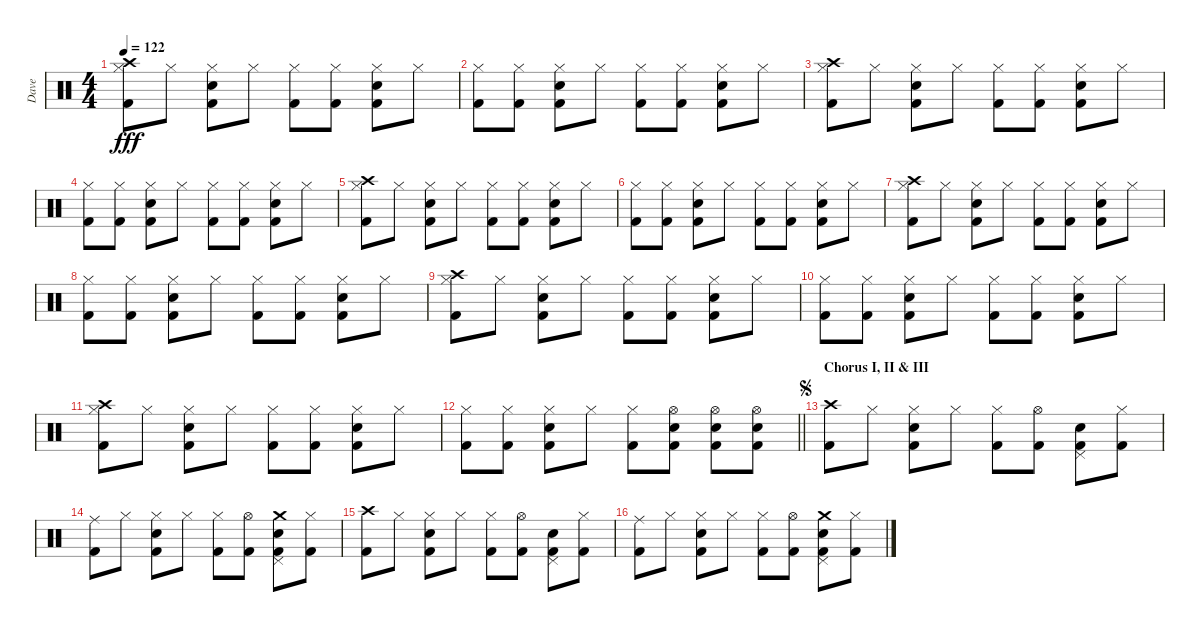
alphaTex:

\track ("Dave" "Dave") {instrument percussion}
\staff {score}
\articulation defaults
\ts (4 4)
\tempo 122
\clef neutral
\ks c
("Crash high (hit)" "Hi-Hat (closed)" "Kick (hit) 2").8{dy fff} "Hi-Hat (closed)".8 ("Hi-Hat (closed)" "Snare (hit) 2" "Kick (hit) 2").8 "Hi-Hat (closed)".8 ("Hi-Hat (closed)" "Kick (hit) 2").8 ("Hi-Hat (closed)" "Kick (hit) 2").8 ("Hi-Hat (closed)" "Snare (hit) 2" "Kick (hit) 2").8 "Hi-Hat (closed)".8 |
("Hi-Hat (closed)" "Kick (hit) 2").8 ("Hi-Hat (closed)" "Kick (hit) 2").8 ("Hi-Hat (closed)" "Snare (hit) 2" "Kick (hit) 2").8 "Hi-Hat (closed)".8 ("Hi-Hat (closed)" "Kick (hit) 2").8 ("Hi-Hat (closed)" "Kick (hit) 2").8 ("Hi-Hat (closed)" "Snare (hit) 2" "Kick (hit) 2").8 "Hi-Hat (closed)".8 |
("Crash high (hit)" "Hi-Hat (closed)" "Kick (hit) 2").8 "Hi-Hat (closed)".8 ("Hi-Hat (closed)" "Snare (hit) 2" "Kick (hit) 2").8 "Hi-Hat (closed)".8 ("Hi-Hat (closed)" "Kick (hit) 2").8 ("Hi-Hat (closed)" "Kick (hit) 2").8 ("Hi-Hat (closed)" "Snare (hit) 2" "Kick (hit) 2").8 "Hi-Hat (closed)".8 |
("Hi-Hat (closed)" "Kick (hit) 2").8 ("Hi-Hat (closed)" "Kick (hit) 2").8 ("Hi-Hat (closed)" "Snare (hit) 2" "Kick (hit) 2").8 "Hi-Hat (closed)".8 ("Hi-Hat (closed)" "Kick (hit) 2").8 ("Hi-Hat (closed)" "Kick (hit) 2").8 ("Hi-Hat (closed)" "Snare (hit) 2" "Kick (hit) 2").8 "Hi-Hat (closed)".8 |
("Crash high (hit)" "Hi-Hat (closed)" "Kick (hit) 2").8 "Hi-Hat (closed)".8 ("Hi-Hat (closed)" "Snare (hit) 2" "Kick (hit) 2").8 "Hi-Hat (closed)".8 ("Hi-Hat (closed)" "Kick (hit) 2").8 ("Hi-Hat (closed)" "Kick (hit) 2").8 ("Hi-Hat (closed)" "Snare (hit) 2" "Kick (hit) 2").8 "Hi-Hat (closed)".8 |
("Hi-Hat (closed)" "Kick (hit) 2").8 ("Hi-Hat (closed)" "Kick (hit) 2").8 ("Hi-Hat (closed)" "Snare (hit) 2" "Kick (hit) 2").8 "Hi-Hat (closed)".8 ("Hi-Hat (closed)" "Kick (hit) 2").8 ("Hi-Hat (closed)" "Kick (hit) 2").8 ("Hi-Hat (closed)" "Snare (hit) 2" "Kick (hit) 2").8 "Hi-Hat (closed)".8 |
("Crash high (hit)" "Hi-Hat (closed)" "Kick (hit) 2").8 "Hi-Hat (closed)".8 ("Hi-Hat (closed)" "Snare (hit) 2" "Kick (hit) 2").8 "Hi-Hat (closed)".8 ("Hi-Hat (closed)" "Kick (hit) 2").8 ("Hi-Hat (closed)" "Kick (hit) 2").8 ("Hi-Hat (closed)" "Snare (hit) 2" "Kick (hit) 2").8 "Hi-Hat (closed)".8 |
("Hi-Hat (closed)" "Kick (hit) 2").8 ("Hi-Hat (closed)" "Kick (hit) 2").8 ("Hi-Hat (closed)" "Snare (hit) 2" "Kick (hit) 2").8 "Hi-Hat (closed)".8 ("Hi-Hat (closed)" "Kick (hit) 2").8 ("Hi-Hat (closed)" "Kick (hit) 2").8 ("Hi-Hat (closed)" "Snare (hit) 2" "Kick (hit) 2").8 "Hi-Hat (closed)".8 |
("Crash high (hit)" "Hi-Hat (closed)" "Kick (hit) 2").8 "Hi-Hat (closed)".8 ("Hi-Hat (closed)" "Snare (hit) 2" "Kick (hit) 2").8 "Hi-Hat (closed)".8 ("Hi-Hat (closed)" "Kick (hit) 2").8 ("Hi-Hat (closed)" "Kick (hit) 2").8 ("Hi-Hat (closed)" "Snare (hit) 2" "Kick (hit) 2").8 "Hi-Hat (closed)".8 |
("Hi-Hat (closed)" "Kick (hit) 2").8 ("Hi-Hat (closed)" "Kick (hit) 2").8 ("Hi-Hat (closed)" "Snare (hit) 2" "Kick (hit) 2").8 "Hi-Hat (closed)".8 ("Hi-Hat (closed)" "Kick (hit) 2").8 ("Hi-Hat (closed)" "Kick (hit) 2").8 ("Hi-Hat (closed)" "Snare (hit) 2" "Kick (hit) 2").8 "Hi-Hat (closed)".8 |
("Crash high (hit)" "Hi-Hat (closed)" "Kick (hit) 2").8 "Hi-Hat (closed)".8 ("Hi-Hat (closed)" "Snare (hit) 2" "Kick (hit) 2").8 "Hi-Hat (closed)".8 ("Hi-Hat (closed)" "Kick (hit) 2").8 ("Hi-Hat (closed)" "Kick (hit) 2").8 ("Hi-Hat (closed)" "Snare (hit) 2" "Kick (hit) 2").8 "Hi-Hat (closed)".8 |
\barLineRight lightlight
("Hi-Hat (closed)" "Kick (hit) 2").8 ("Hi-Hat (closed)" "Kick (hit) 2").8 ("Hi-Hat (closed)" "Snare (hit) 2" "Kick (hit) 2").8 "Hi-Hat (closed)".8 ("Hi-Hat (closed)" "Kick (hit) 2").8 ("Hi-Hat (open)" "Snare (hit) 2" "Kick (hit) 2").8 ("Hi-Hat (open)" "Snare (hit) 2" "Kick (hit) 2").8 ("Hi-Hat (open)" "Snare (hit) 2" "Kick (hit) 2").8 |
\section ("" "Chorus I, II & III")
\jump segno
("Crash high (hit)" "Kick (hit) 2").8 "Hi-Hat (closed)".8 ("Hi-Hat (closed)" "Snare (hit) 2" "Kick (hit) 2").8 "Hi-Hat (closed)".8 ("Hi-Hat (closed)" "Kick (hit) 2").8 ("Hi-Hat (open)" "Kick (hit) 2").8 ("Pedal Hi-Hat (hit)" "Snare (hit) 2" "Kick (hit) 2").8 ("Hi-Hat (closed)" "Kick (hit) 2").8 |
("Ride (middle)" "Kick (hit) 2").8 "Hi-Hat (closed)".8 ("Hi-Hat (closed)" "Snare (hit) 2" "Kick (hit) 2").8 "Hi-Hat (closed)".8 ("Hi-Hat (closed)" "Kick (hit) 2").8 ("Hi-Hat (open)" "Kick (hit) 2").8 ("Crash medium (hit)" "Pedal Hi-Hat (hit)" "Snare (hit) 2" "Kick (hit) 2").8 ("Hi-Hat (closed)" "Kick (hit) 2").8 |
("Crash high (hit)" "Kick (hit) 2").8 "Hi-Hat (closed)".8 ("Hi-Hat (closed)" "Snare (hit) 2" "Kick (hit) 2").8 "Hi-Hat (closed)".8 ("Hi-Hat (closed)" "Kick (hit) 2").8 ("Hi-Hat (open)" "Kick (hit) 2").8 ("Pedal Hi-Hat (hit)" "Snare (hit) 2" "Kick (hit) 2").8 ("Hi-Hat (closed)" "Kick (hit) 2").8 |
("Ride (middle)" "Kick (hit) 2").8 "Hi-Hat (closed)".8 ("Hi-Hat (closed)" "Snare (hit) 2" "Kick (hit) 2").8 "Hi-Hat (closed)".8 ("Hi-Hat (closed)" "Kick (hit) 2").8 ("Hi-Hat (open)" "Kick (hit) 2").8 ("Crash medium (hit)" "Pedal Hi-Hat (hit)" "Snare (hit) 2" "Kick (hit) 2").8 ("Hi-Hat (closed)" "Kick (hit) 2").8
